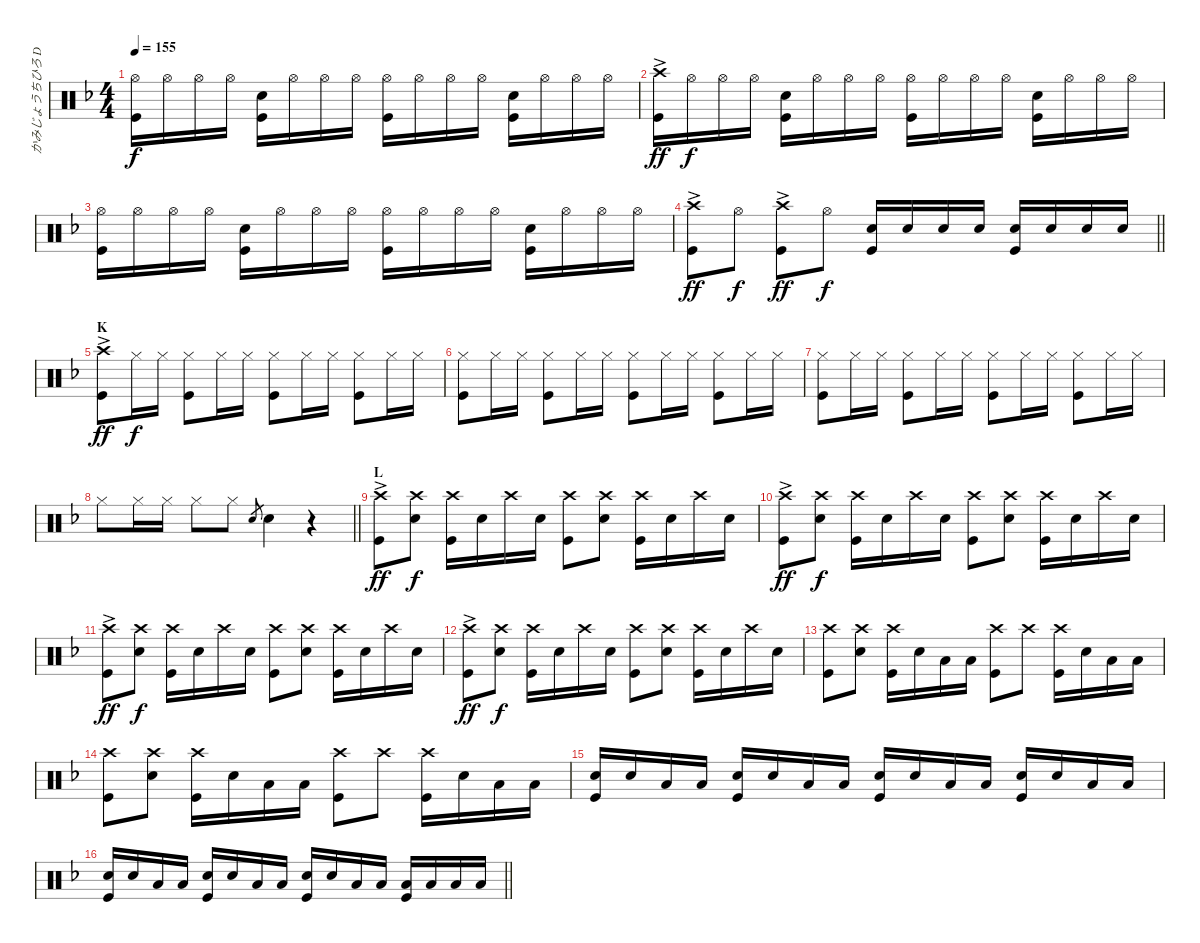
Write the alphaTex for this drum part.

\track ("かみじょうちひろ DRUMS" "かみじょうちひろ D") {instrument percussion}
\staff {score}
\articulation defaults
\ts (4 4)
\tempo 155
\clef neutral
\ks f
("Hi-Hat (open)" "Kick (hit)").16{dy f} "Hi-Hat (open)".16 "Hi-Hat (open)".16 "Hi-Hat (open)".16 ("Snare (hit) 2" "Kick (hit)").16 "Hi-Hat (open)".16 "Hi-Hat (open)".16 "Hi-Hat (open)".16 ("Hi-Hat (open)" "Kick (hit)").16 "Hi-Hat (open)".16 "Hi-Hat (open)".16 "Hi-Hat (open)".16 ("Snare (hit) 2" "Kick (hit)").16 "Hi-Hat (open)".16 "Hi-Hat (open)".16 "Hi-Hat (open)".16 |
("Crash high (hit)"{ac} "Kick (hit)").16{dy ff} "Hi-Hat (open)".16{dy f} "Hi-Hat (open)".16 "Hi-Hat (open)".16 ("Snare (hit) 2" "Kick (hit)").16 "Hi-Hat (open)".16 "Hi-Hat (open)".16 "Hi-Hat (open)".16 ("Hi-Hat (open)" "Kick (hit)").16 "Hi-Hat (open)".16 "Hi-Hat (open)".16 "Hi-Hat (open)".16 ("Snare (hit) 2" "Kick (hit)").16 "Hi-Hat (open)".16 "Hi-Hat (open)".16 "Hi-Hat (open)".16 |
("Hi-Hat (open)" "Kick (hit)").16 "Hi-Hat (open)".16 "Hi-Hat (open)".16 "Hi-Hat (open)".16 ("Snare (hit) 2" "Kick (hit)").16 "Hi-Hat (open)".16 "Hi-Hat (open)".16 "Hi-Hat (open)".16 ("Hi-Hat (open)" "Kick (hit)").16 "Hi-Hat (open)".16 "Hi-Hat (open)".16 "Hi-Hat (open)".16 ("Snare (hit) 2" "Kick (hit)").16 "Hi-Hat (open)".16 "Hi-Hat (open)".16 "Hi-Hat (open)".16 |
\barLineRight lightlight
("Crash high (hit)"{ac} "Kick (hit)").8{dy ff} "Hi-Hat (open)".8{dy f} ("Crash high (hit)"{ac} "Kick (hit)").8{dy ff} "Hi-Hat (open)".8{dy f} ("Snare (hit) 2" "Kick (hit)").16 "Snare (hit) 2".16 "Snare (hit) 2".16 "Snare (hit) 2".16 ("Snare (hit) 2" "Kick (hit)").16 "Snare (hit) 2".16 "Snare (hit) 2".16 "Snare (hit) 2".16 |
\section ("" "K")
("Crash high (hit)"{ac} "Kick (hit)").8{dy ff} "Hi-Hat (closed)".16{dy f} "Hi-Hat (closed)".16 ("Hi-Hat (closed)" "Kick (hit)").8 "Hi-Hat (closed)".16 "Hi-Hat (closed)".16 ("Hi-Hat (closed)" "Kick (hit)").8 "Hi-Hat (closed)".16 "Hi-Hat (closed)".16 ("Hi-Hat (closed)" "Kick (hit)").8 "Hi-Hat (closed)".16 "Hi-Hat (closed)".16 |
("Hi-Hat (closed)" "Kick (hit)").8 "Hi-Hat (closed)".16 "Hi-Hat (closed)".16 ("Hi-Hat (closed)" "Kick (hit)").8 "Hi-Hat (closed)".16 "Hi-Hat (closed)".16 ("Hi-Hat (closed)" "Kick (hit)").8 "Hi-Hat (closed)".16 "Hi-Hat (closed)".16 ("Hi-Hat (closed)" "Kick (hit)").8 "Hi-Hat (closed)".16 "Hi-Hat (closed)".16 |
("Hi-Hat (closed)" "Kick (hit)").8 "Hi-Hat (closed)".16 "Hi-Hat (closed)".16 ("Hi-Hat (closed)" "Kick (hit)").8 "Hi-Hat (closed)".16 "Hi-Hat (closed)".16 ("Hi-Hat (closed)" "Kick (hit)").8 "Hi-Hat (closed)".16 "Hi-Hat (closed)".16 ("Hi-Hat (closed)" "Kick (hit)").8 "Hi-Hat (closed)".16 "Hi-Hat (closed)".16 |
\barLineRight lightlight "Hi-Hat (closed)".8 "Hi-Hat (closed)".16 "Hi-Hat (closed)".16 "Hi-Hat (closed)".8 "Hi-Hat (closed)".8 "Snare (hit) 2".8{gr} "Snare (hit) 2".4
r.4 |
\section ("" "L")
("Crash high (hit)"{ac} "Kick (hit)").8{dy ff} ("Crash high (hit)" "Snare (hit) 2").8{dy f} ("Crash high (hit)" "Kick (hit)").16 "Snare (hit) 2".16 "Crash high (hit)".16 "Snare (hit) 2".16 ("Crash high (hit)" "Kick (hit)").8 ("Crash high (hit)" "Snare (hit) 2").8 ("Crash high (hit)" "Kick (hit)").16 "Snare (hit) 2".16 "Crash high (hit)".16 "Snare (hit) 2".16 |
("Crash high (hit)"{ac} "Kick (hit)").8{dy ff} ("Crash high (hit)" "Snare (hit) 2").8{dy f} ("Crash high (hit)" "Kick (hit)").16 "Snare (hit) 2".16 "Crash high (hit)".16 "Snare (hit) 2".16 ("Crash high (hit)" "Kick (hit)").8 ("Crash high (hit)" "Snare (hit) 2").8 ("Crash high (hit)" "Kick (hit)").16 "Snare (hit) 2".16 "Crash high (hit)".16 "Snare (hit) 2".16 |
("Crash high (hit)"{ac} "Kick (hit)").8{dy ff} ("Crash high (hit)" "Snare (hit) 2").8{dy f} ("Crash high (hit)" "Kick (hit)").16 "Snare (hit) 2".16 "Crash high (hit)".16 "Snare (hit) 2".16 ("Crash high (hit)" "Kick (hit)").8 ("Crash high (hit)" "Snare (hit) 2").8 ("Crash high (hit)" "Kick (hit)").16 "Snare (hit) 2".16 "Crash high (hit)".16 "Snare (hit) 2".16 |
("Crash high (hit)"{ac} "Kick (hit)").8{dy ff} ("Crash high (hit)" "Snare (hit) 2").8{dy f} ("Crash high (hit)" "Kick (hit)").16 "Snare (hit) 2".16 "Crash high (hit)".16 "Snare (hit) 2".16 ("Crash high (hit)" "Kick (hit)").8 ("Crash high (hit)" "Snare (hit) 2").8 ("Crash high (hit)" "Kick (hit)").16 "Snare (hit) 2".16 "Crash high (hit)".16 "Snare (hit) 2".16 |
("Crash high (hit)" "Kick (hit)").8 ("Crash high (hit)" "Snare (hit) 2").8 ("Crash high (hit)" "Kick (hit)").16 "Snare (hit) 2".16 "Low Tom (hit)".16 "Low Tom (hit)".16 ("Crash high (hit)" "Kick (hit)").8 "Crash high (hit)".8 ("Crash high (hit)" "Kick (hit)").16 "Snare (hit) 2".16 "Low Tom (hit)".16 "Low Tom (hit)".16 |
("Crash high (hit)" "Kick (hit)").8 ("Crash high (hit)" "Snare (hit) 2").8 ("Crash high (hit)" "Kick (hit)").16 "Snare (hit) 2".16 "Low Tom (hit)".16 "Low Tom (hit)".16 ("Crash high (hit)" "Kick (hit)").8 "Crash high (hit)".8 ("Crash high (hit)" "Kick (hit)").16 "Snare (hit) 2".16 "Low Tom (hit)".16 "Low Tom (hit)".16 |
("Snare (hit) 2" "Kick (hit)").16 "Snare (hit) 2".16 "Low Tom (hit)".16 "Low Tom (hit)".16 ("Snare (hit) 2" "Kick (hit)").16 "Snare (hit) 2".16 "Low Tom (hit)".16 "Low Tom (hit)".16 ("Snare (hit) 2" "Kick (hit)").16 "Snare (hit) 2".16 "Low Tom (hit)".16 "Low Tom (hit)".16 ("Snare (hit) 2" "Kick (hit)").16 "Snare (hit) 2".16 "Low Tom (hit)".16 "Low Tom (hit)".16 |
\barLineRight lightlight
("Snare (hit) 2" "Kick (hit)").16 "Snare (hit) 2".16 "Low Tom (hit)".16 "Low Tom (hit)".16 ("Snare (hit) 2" "Kick (hit)").16 "Snare (hit) 2".16 "Low Tom (hit)".16 "Low Tom (hit)".16 ("Snare (hit) 2" "Kick (hit)").16 "Snare (hit) 2".16 "Low Tom (hit)".16 "Low Tom (hit)".16 ("Low Tom (hit)" "Kick (hit)").16 "Low Tom (hit)".16 "Low Tom (hit)".16 "Low Tom (hit)".16
